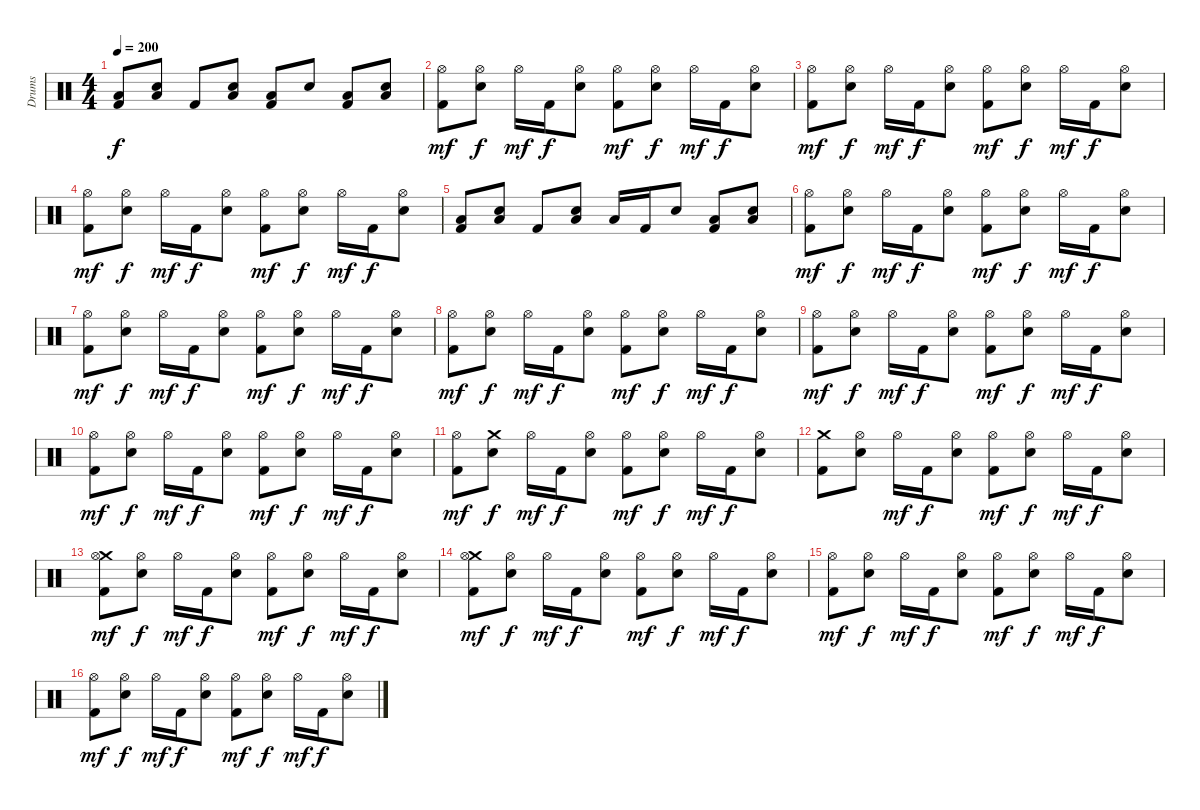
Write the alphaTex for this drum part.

\track ("Drums" "Drums") {instrument percussion}
\staff {score}
\articulation defaults
\ts (4 4)
\tempo 200
\clef neutral
\ks c
("Low Floor Tom (hit)" "Kick (hit) 2").8{dy f} ("Low Floor Tom (hit)" "Electric Snare (hit)").8 "Kick (hit) 2".8 ("Low Floor Tom (hit)" "Electric Snare (hit)").8 ("Low Floor Tom (hit)" "Kick (hit) 2").8 "Electric Snare (hit)".8 ("Low Floor Tom (hit)" "Kick (hit) 2").8 ("Low Floor Tom (hit)" "Electric Snare (hit)").8 |
("Hi-Hat (open)" "Kick (hit) 2").8{dy mf} ("Hi-Hat (open)" "Electric Snare (hit)").8{dy f} "Hi-Hat (open)".16{dy mf} "Kick (hit) 2".16{dy f} ("Hi-Hat (open)" "Electric Snare (hit)").8 ("Hi-Hat (open)" "Kick (hit) 2").8{dy mf} ("Hi-Hat (open)" "Electric Snare (hit)").8{dy f} "Hi-Hat (open)".16{dy mf} "Kick (hit) 2".16{dy f} ("Hi-Hat (open)" "Electric Snare (hit)").8 |
("Hi-Hat (open)" "Kick (hit) 2").8{dy mf} ("Hi-Hat (open)" "Electric Snare (hit)").8{dy f} "Hi-Hat (open)".16{dy mf} "Kick (hit) 2".16{dy f} ("Hi-Hat (open)" "Electric Snare (hit)").8 ("Hi-Hat (open)" "Kick (hit) 2").8{dy mf} ("Hi-Hat (open)" "Electric Snare (hit)").8{dy f} "Hi-Hat (open)".16{dy mf} "Kick (hit) 2".16{dy f} ("Hi-Hat (open)" "Electric Snare (hit)").8 |
("Hi-Hat (open)" "Kick (hit) 2").8{dy mf} ("Hi-Hat (open)" "Electric Snare (hit)").8{dy f} "Hi-Hat (open)".16{dy mf} "Kick (hit) 2".16{dy f} ("Hi-Hat (open)" "Electric Snare (hit)").8 ("Hi-Hat (open)" "Kick (hit) 2").8{dy mf} ("Hi-Hat (open)" "Electric Snare (hit)").8{dy f} "Hi-Hat (open)".16{dy mf} "Kick (hit) 2".16{dy f} ("Hi-Hat (open)" "Electric Snare (hit)").8 |
("Low Floor Tom (hit)" "Kick (hit) 2").8 ("Low Floor Tom (hit)" "Electric Snare (hit)").8 "Kick (hit) 2".8 ("Low Floor Tom (hit)" "Electric Snare (hit)").8 "Low Floor Tom (hit)".16 "Kick (hit) 2".16 "Electric Snare (hit)".8 ("Low Floor Tom (hit)" "Kick (hit) 2").8 ("Low Floor Tom (hit)" "Electric Snare (hit)").8 |
("Hi-Hat (open)" "Kick (hit) 2").8{dy mf} ("Hi-Hat (open)" "Electric Snare (hit)").8{dy f} "Hi-Hat (open)".16{dy mf} "Kick (hit) 2".16{dy f} ("Hi-Hat (open)" "Electric Snare (hit)").8 ("Hi-Hat (open)" "Kick (hit) 2").8{dy mf} ("Hi-Hat (open)" "Electric Snare (hit)").8{dy f} "Hi-Hat (open)".16{dy mf} "Kick (hit) 2".16{dy f} ("Hi-Hat (open)" "Electric Snare (hit)").8 |
("Hi-Hat (open)" "Kick (hit) 2").8{dy mf} ("Hi-Hat (open)" "Electric Snare (hit)").8{dy f} "Hi-Hat (open)".16{dy mf} "Kick (hit) 2".16{dy f} ("Hi-Hat (open)" "Electric Snare (hit)").8 ("Hi-Hat (open)" "Kick (hit) 2").8{dy mf} ("Hi-Hat (open)" "Electric Snare (hit)").8{dy f} "Hi-Hat (open)".16{dy mf} "Kick (hit) 2".16{dy f} ("Hi-Hat (open)" "Electric Snare (hit)").8 |
("Hi-Hat (open)" "Kick (hit) 2").8{dy mf} ("Hi-Hat (open)" "Electric Snare (hit)").8{dy f} "Hi-Hat (open)".16{dy mf} "Kick (hit) 2".16{dy f} ("Hi-Hat (open)" "Electric Snare (hit)").8 ("Hi-Hat (open)" "Kick (hit) 2").8{dy mf} ("Hi-Hat (open)" "Electric Snare (hit)").8{dy f} "Hi-Hat (open)".16{dy mf} "Kick (hit) 2".16{dy f} ("Hi-Hat (open)" "Electric Snare (hit)").8 |
("Hi-Hat (open)" "Kick (hit) 2").8{dy mf} ("Hi-Hat (open)" "Electric Snare (hit)").8{dy f} "Hi-Hat (open)".16{dy mf} "Kick (hit) 2".16{dy f} ("Hi-Hat (open)" "Electric Snare (hit)").8 ("Hi-Hat (open)" "Kick (hit) 2").8{dy mf} ("Hi-Hat (open)" "Electric Snare (hit)").8{dy f} "Hi-Hat (open)".16{dy mf} "Kick (hit) 2".16{dy f} ("Hi-Hat (open)" "Electric Snare (hit)").8 |
("Hi-Hat (open)" "Kick (hit) 2").8{dy mf} ("Hi-Hat (open)" "Electric Snare (hit)").8{dy f} "Hi-Hat (open)".16{dy mf} "Kick (hit) 2".16{dy f} ("Hi-Hat (open)" "Electric Snare (hit)").8 ("Hi-Hat (open)" "Kick (hit) 2").8{dy mf} ("Hi-Hat (open)" "Electric Snare (hit)").8{dy f} "Hi-Hat (open)".16{dy mf} "Kick (hit) 2".16{dy f} ("Hi-Hat (open)" "Electric Snare (hit)").8 |
("Hi-Hat (open)" "Kick (hit) 2").8{dy mf} ("Crash medium (hit)" "Electric Snare (hit)").8{dy f} "Hi-Hat (open)".16{dy mf} "Kick (hit) 2".16{dy f} ("Hi-Hat (open)" "Electric Snare (hit)").8 ("Hi-Hat (open)" "Kick (hit) 2").8{dy mf} ("Hi-Hat (open)" "Electric Snare (hit)").8{dy f} "Hi-Hat (open)".16{dy mf} "Kick (hit) 2".16{dy f} ("Hi-Hat (open)" "Electric Snare (hit)").8 |
("Crash medium (hit)" "Kick (hit) 2").8 ("Hi-Hat (open)" "Electric Snare (hit)").8 "Hi-Hat (open)".16{dy mf} "Kick (hit) 2".16{dy f} ("Hi-Hat (open)" "Electric Snare (hit)").8 ("Hi-Hat (open)" "Kick (hit) 2").8{dy mf} ("Hi-Hat (open)" "Electric Snare (hit)").8{dy f} "Hi-Hat (open)".16{dy mf} "Kick (hit) 2".16{dy f} ("Hi-Hat (open)" "Electric Snare (hit)").8 |
("Crash medium (hit)" "Hi-Hat (open)" "Kick (hit) 2").8{dy mf} ("Hi-Hat (open)" "Electric Snare (hit)").8{dy f} "Hi-Hat (open)".16{dy mf} "Kick (hit) 2".16{dy f} ("Hi-Hat (open)" "Electric Snare (hit)").8 ("Hi-Hat (open)" "Kick (hit) 2").8{dy mf} ("Hi-Hat (open)" "Electric Snare (hit)").8{dy f} "Hi-Hat (open)".16{dy mf} "Kick (hit) 2".16{dy f} ("Hi-Hat (open)" "Electric Snare (hit)").8 |
("Crash medium (hit)" "Hi-Hat (open)" "Kick (hit) 2").8{dy mf} ("Hi-Hat (open)" "Electric Snare (hit)").8{dy f} "Hi-Hat (open)".16{dy mf} "Kick (hit) 2".16{dy f} ("Hi-Hat (open)" "Electric Snare (hit)").8 ("Hi-Hat (open)" "Kick (hit) 2").8{dy mf} ("Hi-Hat (open)" "Electric Snare (hit)").8{dy f} "Hi-Hat (open)".16{dy mf} "Kick (hit) 2".16{dy f} ("Hi-Hat (open)" "Electric Snare (hit)").8 |
("Hi-Hat (open)" "Kick (hit) 2").8{dy mf} ("Hi-Hat (open)" "Electric Snare (hit)").8{dy f} "Hi-Hat (open)".16{dy mf} "Kick (hit) 2".16{dy f} ("Hi-Hat (open)" "Electric Snare (hit)").8 ("Hi-Hat (open)" "Kick (hit) 2").8{dy mf} ("Hi-Hat (open)" "Electric Snare (hit)").8{dy f} "Hi-Hat (open)".16{dy mf} "Kick (hit) 2".16{dy f} ("Hi-Hat (open)" "Electric Snare (hit)").8 |
("Hi-Hat (open)" "Kick (hit) 2").8{dy mf} ("Hi-Hat (open)" "Electric Snare (hit)").8{dy f} "Hi-Hat (open)".16{dy mf} "Kick (hit) 2".16{dy f} ("Hi-Hat (open)" "Electric Snare (hit)").8 ("Hi-Hat (open)" "Kick (hit) 2").8{dy mf} ("Hi-Hat (open)" "Electric Snare (hit)").8{dy f} "Hi-Hat (open)".16{dy mf} "Kick (hit) 2".16{dy f} ("Hi-Hat (open)" "Electric Snare (hit)").8
